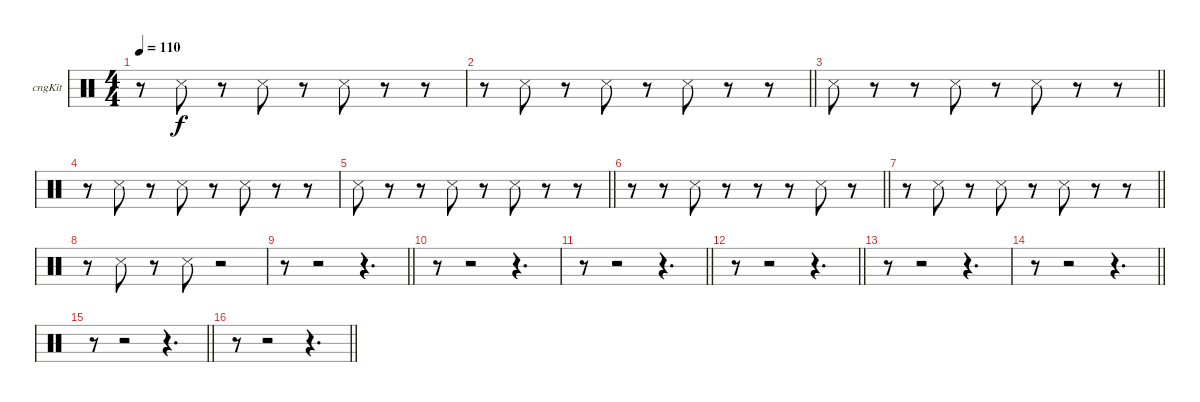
\bracketExtendMode groupsimilarinstruments
\firstSystemTrackNameOrientation horizontal
\otherSystemsTrackNameOrientation horizontal
\track ("Congas" "cngKit") {instrument percussion}
\staff {score}
\articulation defaults
\ts (4 4)
\tempo 110
\clef neutral
\ks c
r.8{dy f} "Snare (side stick) 3".8 r.8 "Snare (side stick) 3".8 r.8 "Snare (side stick) 3".8 r.8 r.8 |
\barLineRight lightlight
r.8 "Snare (side stick) 3".8 r.8 "Snare (side stick) 3".8 r.8 "Snare (side stick) 3".8 r.8 r.8 |
\barLineRight lightlight "Snare (side stick) 3".8
r.8 r.8 "Snare (side stick) 3".8 r.8 "Snare (side stick) 3".8 r.8 r.8 |
r.8 "Snare (side stick) 3".8 r.8 "Snare (side stick) 3".8 r.8 "Snare (side stick) 3".8 r.8 r.8 |
\barLineRight lightlight "Snare (side stick) 3".8
r.8 r.8 "Snare (side stick) 3".8 r.8 "Snare (side stick) 3".8 r.8 r.8 |
\barLineRight lightlight
r.8 r.8 "Snare (side stick) 3".8 r.8 r.8 r.8 "Snare (side stick) 3".8 r.8 |
\barLineRight lightlight
r.8 "Snare (side stick) 3".8 r.8 "Snare (side stick) 3".8 r.8 "Snare (side stick) 3".8 r.8 r.8 |
r.8 "Snare (side stick) 3".8 r.8 "Snare (side stick) 3".8 r.2 |
\barLineRight lightlight
r.8 r.2 r.4{d} |
r.8 r.2 r.4{d} |
\barLineRight lightlight
r.8 r.2 r.4{d} |
\barLineRight lightlight
r.8 r.2 r.4{d} |
r.8 r.2 r.4{d} |
\barLineRight lightlight
r.8 r.2 r.4{d} |
\barLineRight lightlight
r.8 r.2 r.4{d} |
\barLineRight lightlight
r.8 r.2 r.4{d}
